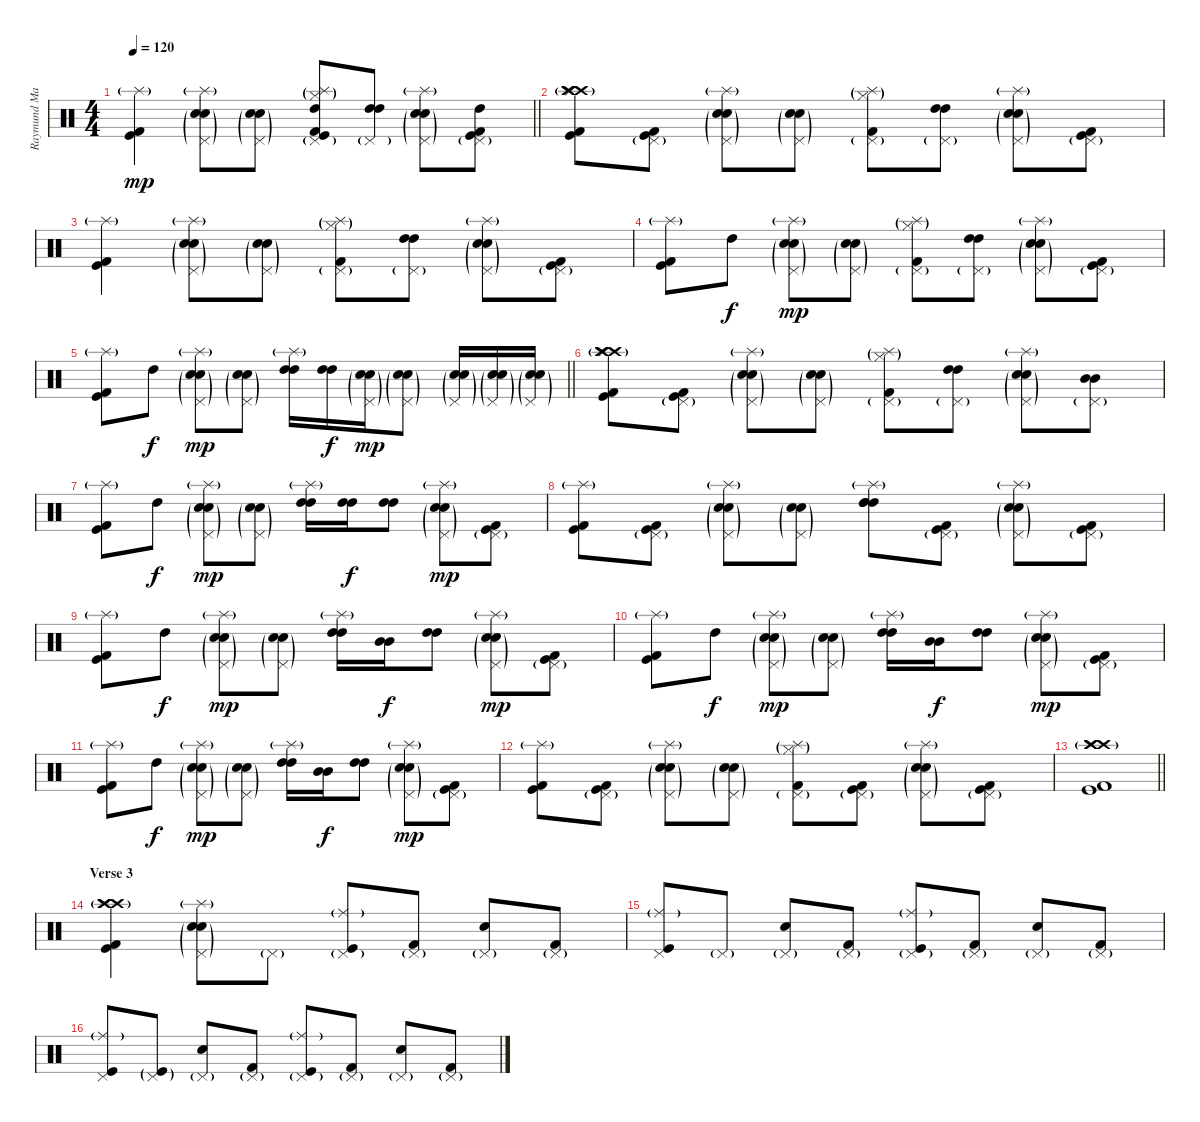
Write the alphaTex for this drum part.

\track ("Raymund Marasigan(Drums)" "Raymund Ma") {instrument percussion}
\staff {score}
\articulation defaults
\ts (4 4)
\tempo 120
\clef neutral
\barLineRight lightlight
\ks c
("Kick (hit) 2" "Kick (hit)" "Splash (hit)"{g}).4{dy mp} ("Pedal Hi-Hat (hit)"{g} "Electric Snare (hit)" "Snare (hit) 2"{g} "Splash (hit)"{g}).8 ("Pedal Hi-Hat (hit)"{g} "Electric Snare (hit)" "Snare (hit) 2"{g}).8 ("Pedal Hi-Hat (hit)"{g} "Hi-Hat (closed)"{g} "High Tom (hit)" "Splash (hit)"{g} "Kick (hit) 2" "Kick (hit)").8 ("Pedal Hi-Hat (hit)"{g} "High Tom (hit)" "High Tom (hit)").8 ("Pedal Hi-Hat (hit)"{g} "Electric Snare (hit)" "Snare (hit) 2"{g} "Splash (hit)"{g}).8 ("Pedal Hi-Hat (hit)"{g} "Kick (hit) 2" "Kick (hit)" "High Tom (hit)").8 |
\section ("" "")
("Crash high (hit)"{g} "Crash high (hit)"{g} "Crash high (hit)"{g} "Kick (hit) 2" "Kick (hit)" "Splash (hit)"{g}).8 ("Pedal Hi-Hat (hit)"{g} "Kick (hit) 2" "Kick (hit)").8 ("Pedal Hi-Hat (hit)"{g} "Electric Snare (hit)" "Snare (hit) 2"{g} "Splash (hit)"{g}).8 ("Pedal Hi-Hat (hit)"{g} "Electric Snare (hit)" "Snare (hit) 2"{g}).8 ("Pedal Hi-Hat (hit)"{g} "Hi-Hat (closed)"{g} "Kick (hit) 2" "Splash (hit)"{g}).8 ("Pedal Hi-Hat (hit)"{g} "High Tom (hit)" "High Tom (hit)").8 ("Pedal Hi-Hat (hit)"{g} "Electric Snare (hit)" "Snare (hit) 2"{g} "Splash (hit)"{g}).8 ("Pedal Hi-Hat (hit)"{g} "Kick (hit) 2" "Kick (hit)").8 |
("Kick (hit) 2" "Kick (hit)" "Splash (hit)"{g}).4 ("Pedal Hi-Hat (hit)"{g} "Electric Snare (hit)" "Snare (hit) 2"{g} "Splash (hit)"{g}).8 ("Pedal Hi-Hat (hit)"{g} "Electric Snare (hit)" "Snare (hit) 2"{g}).8 ("Pedal Hi-Hat (hit)"{g} "Hi-Hat (closed)"{g} "Kick (hit) 2" "Splash (hit)"{g}).8 ("Pedal Hi-Hat (hit)"{g} "High Tom (hit)" "High Tom (hit)").8 ("Pedal Hi-Hat (hit)"{g} "Electric Snare (hit)" "Snare (hit) 2"{g} "Splash (hit)"{g}).8 ("Pedal Hi-Hat (hit)"{g} "Kick (hit) 2" "Kick (hit)").8 |
("Kick (hit) 2" "Kick (hit)" "Splash (hit)"{g}).8 "High Tom (hit)".8{dy f} ("Pedal Hi-Hat (hit)"{g} "Electric Snare (hit)" "Snare (hit) 2"{g} "Splash (hit)"{g}).8{dy mp} ("Pedal Hi-Hat (hit)"{g} "Electric Snare (hit)" "Snare (hit) 2"{g}).8 ("Pedal Hi-Hat (hit)"{g} "Hi-Hat (closed)"{g} "Kick (hit) 2" "Splash (hit)"{g}).8 ("Pedal Hi-Hat (hit)"{g} "High Tom (hit)" "High Tom (hit)").8 ("Pedal Hi-Hat (hit)"{g} "Electric Snare (hit)" "Snare (hit) 2"{g} "Splash (hit)"{g}).8 ("Pedal Hi-Hat (hit)"{g} "Kick (hit) 2" "Kick (hit)").8 |
\barLineRight lightlight
("Kick (hit) 2" "Kick (hit)" "Splash (hit)"{g}).8 "High Tom (hit)".8{dy f} ("Pedal Hi-Hat (hit)"{g} "Electric Snare (hit)" "Snare (hit) 2"{g} "Splash (hit)"{g}).8{dy mp} ("Pedal Hi-Hat (hit)"{g} "Electric Snare (hit)" "Snare (hit) 2"{g}).8 ("High Tom (hit)" "High Tom (hit)" "Splash (hit)"{g}).16 ("High Tom (hit)" "High Tom (hit)").16{dy f} ("Pedal Hi-Hat (hit)"{g} "Electric Snare (hit)" "Snare (hit) 2"{g}).16{dy mp} ("Pedal Hi-Hat (hit)"{g} "Electric Snare (hit)" "Snare (hit) 2"{g}).8 ("Pedal Hi-Hat (hit)"{g} "Electric Snare (hit)" "Snare (hit) 2"{g}).16 ("Pedal Hi-Hat (hit)"{g} "Electric Snare (hit)" "Snare (hit) 2"{g}).16 ("Pedal Hi-Hat (hit)"{g} "Electric Snare (hit)" "Snare (hit) 2"{g}).16 |
("Crash high (hit)"{g} "Crash high (hit)"{g} "Crash high (hit)"{g} "Kick (hit) 2" "Kick (hit)" "Splash (hit)"{g}).8 ("Pedal Hi-Hat (hit)"{g} "Kick (hit) 2" "Kick (hit)").8 ("Pedal Hi-Hat (hit)"{g} "Electric Snare (hit)" "Snare (hit) 2"{g} "Splash (hit)"{g}).8 ("Pedal Hi-Hat (hit)"{g} "Electric Snare (hit)" "Snare (hit) 2"{g}).8 ("Pedal Hi-Hat (hit)"{g} "Hi-Hat (closed)"{g} "Kick (hit) 2" "Splash (hit)"{g}).8 ("Pedal Hi-Hat (hit)"{g} "High Tom (hit)" "High Tom (hit)").8 ("Pedal Hi-Hat (hit)"{g} "Electric Snare (hit)" "Snare (hit) 2"{g} "Splash (hit)"{g}).8 ("Pedal Hi-Hat (hit)"{g} "Mid Tom (hit)" "Mid Tom (hit)").8 |
("Kick (hit) 2" "Kick (hit)" "Splash (hit)"{g}).8 "High Tom (hit)".8{dy f} ("Pedal Hi-Hat (hit)"{g} "Electric Snare (hit)" "Snare (hit) 2"{g} "Splash (hit)"{g}).8{dy mp} ("Pedal Hi-Hat (hit)"{g} "Electric Snare (hit)" "Snare (hit) 2"{g}).8 ("High Tom (hit)" "High Tom (hit)" "Splash (hit)"{g}).16 ("High Tom (hit)" "High Tom (hit)").16{dy f} ("High Tom (hit)" "High Tom (hit)").8 ("Pedal Hi-Hat (hit)"{g} "Electric Snare (hit)" "Snare (hit) 2"{g} "Splash (hit)"{g}).8{dy mp} ("Pedal Hi-Hat (hit)"{g} "Kick (hit) 2" "Kick (hit)").8 |
("Kick (hit) 2" "Kick (hit)" "Splash (hit)"{g}).8 ("Pedal Hi-Hat (hit)"{g} "Kick (hit) 2" "Kick (hit)").8 ("Pedal Hi-Hat (hit)"{g} "Electric Snare (hit)" "Snare (hit) 2"{g} "Splash (hit)"{g}).8 ("Pedal Hi-Hat (hit)"{g} "Electric Snare (hit)" "Snare (hit) 2"{g}).8 ("High Tom (hit)" "High Tom (hit)" "High Tom (hit)" "Splash (hit)"{g}).8 ("Pedal Hi-Hat (hit)"{g} "Kick (hit) 2" "Kick (hit)").8 ("Pedal Hi-Hat (hit)"{g} "Electric Snare (hit)" "Snare (hit) 2"{g} "Splash (hit)"{g}).8 ("Pedal Hi-Hat (hit)"{g} "Kick (hit) 2" "Kick (hit)").8 |
("Kick (hit) 2" "Kick (hit)" "Splash (hit)"{g}).8 "High Tom (hit)".8{dy f} ("Pedal Hi-Hat (hit)"{g} "Electric Snare (hit)" "Snare (hit) 2"{g} "Splash (hit)"{g}).8{dy mp} ("Pedal Hi-Hat (hit)"{g} "Electric Snare (hit)" "Snare (hit) 2"{g}).8 ("High Tom (hit)" "High Tom (hit)" "Splash (hit)"{g}).16 ("Mid Tom (hit)" "Mid Tom (hit)").16{dy f} ("High Tom (hit)" "High Tom (hit)").8 ("Pedal Hi-Hat (hit)"{g} "Electric Snare (hit)" "Snare (hit) 2"{g} "Splash (hit)"{g}).8{dy mp} ("Pedal Hi-Hat (hit)"{g} "Kick (hit) 2" "Kick (hit)").8 |
("Kick (hit) 2" "Kick (hit)" "Splash (hit)"{g}).8 "High Tom (hit)".8{dy f} ("Pedal Hi-Hat (hit)"{g} "Electric Snare (hit)" "Snare (hit) 2"{g} "Splash (hit)"{g}).8{dy mp} ("Pedal Hi-Hat (hit)"{g} "Electric Snare (hit)" "Snare (hit) 2"{g}).8 ("High Tom (hit)" "High Tom (hit)" "Splash (hit)"{g}).16 ("Mid Tom (hit)" "Mid Tom (hit)").16{dy f} ("High Tom (hit)" "High Tom (hit)").8 ("Pedal Hi-Hat (hit)"{g} "Electric Snare (hit)" "Snare (hit) 2"{g} "Splash (hit)"{g}).8{dy mp} ("Pedal Hi-Hat (hit)"{g} "Kick (hit) 2" "Kick (hit)").8 |
("Kick (hit) 2" "Kick (hit)" "Splash (hit)"{g}).8 "High Tom (hit)".8{dy f} ("Pedal Hi-Hat (hit)"{g} "Electric Snare (hit)" "Snare (hit) 2"{g} "Splash (hit)"{g}).8{dy mp} ("Pedal Hi-Hat (hit)"{g} "Electric Snare (hit)" "Snare (hit) 2"{g}).8 ("High Tom (hit)" "High Tom (hit)" "Splash (hit)"{g}).16 ("Mid Tom (hit)" "Mid Tom (hit)").16{dy f} ("High Tom (hit)" "High Tom (hit)").8 ("Pedal Hi-Hat (hit)"{g} "Electric Snare (hit)" "Snare (hit) 2"{g} "Splash (hit)"{g}).8{dy mp} ("Pedal Hi-Hat (hit)"{g} "Kick (hit) 2" "Kick (hit)").8 |
("Kick (hit) 2" "Kick (hit)" "Splash (hit)"{g}).8 ("Pedal Hi-Hat (hit)"{g} "Kick (hit) 2" "Kick (hit)").8 ("Pedal Hi-Hat (hit)"{g} "Electric Snare (hit)" "Snare (hit) 2"{g} "Splash (hit)"{g}).8 ("Pedal Hi-Hat (hit)"{g} "Electric Snare (hit)" "Snare (hit) 2"{g}).8 ("Pedal Hi-Hat (hit)"{g} "Hi-Hat (closed)"{g} "Kick (hit) 2" "Splash (hit)"{g}).8 ("Pedal Hi-Hat (hit)"{g} "Kick (hit) 2" "Kick (hit)").8 ("Pedal Hi-Hat (hit)"{g} "Electric Snare (hit)" "Snare (hit) 2"{g} "Splash (hit)"{g}).8 ("Pedal Hi-Hat (hit)"{g} "Kick (hit) 2" "Kick (hit)").8 |
\barLineRight lightlight
("Crash high (hit)"{g} "Crash high (hit)"{g} "Crash high (hit)"{g} "Kick (hit) 2" "Kick (hit)").1 |
\section ("" "Verse 3")
("Crash high (hit)"{g} "Crash high (hit)"{g} "Crash high (hit)"{g} "Kick (hit) 2" "Kick (hit)").4 ("Pedal Hi-Hat (hit)"{g} "Electric Snare (hit)" "Snare (hit) 2"{g} "Splash (hit)"{g}).8 "Pedal Hi-Hat (hit)"{g}.8 ("Pedal Hi-Hat (hit)"{g} "Kick (hit)" "Ride (middle)"{g}).8 ("Pedal Hi-Hat (hit)"{g} "Kick (hit) 2").8 ("Pedal Hi-Hat (hit)"{g} "Electric Snare (hit)").8 ("Pedal Hi-Hat (hit)"{g} "Kick (hit) 2").8 |
("Pedal Hi-Hat (hit)" "Kick (hit)" "Ride (middle)"{g}).8 "Pedal Hi-Hat (hit)"{g}.8 ("Pedal Hi-Hat (hit)"{g} "Electric Snare (hit)").8 ("Pedal Hi-Hat (hit)"{g} "Kick (hit) 2").8 ("Pedal Hi-Hat (hit)"{g} "Kick (hit)" "Ride (middle)"{g}).8 ("Pedal Hi-Hat (hit)"{g} "Kick (hit) 2").8 ("Pedal Hi-Hat (hit)"{g} "Electric Snare (hit)").8 ("Pedal Hi-Hat (hit)"{g} "Kick (hit) 2").8 |
("Pedal Hi-Hat (hit)" "Kick (hit)" "Ride (middle)"{g}).8 ("Pedal Hi-Hat (hit)"{g} "Kick (hit)"{g}).8 ("Pedal Hi-Hat (hit)"{g} "Electric Snare (hit)").8 ("Pedal Hi-Hat (hit)"{g} "Kick (hit) 2").8 ("Pedal Hi-Hat (hit)"{g} "Kick (hit)" "Ride (middle)"{g}).8 ("Pedal Hi-Hat (hit)"{g} "Kick (hit) 2").8 ("Pedal Hi-Hat (hit)"{g} "Electric Snare (hit)").8 ("Pedal Hi-Hat (hit)"{g} "Kick (hit) 2").8
